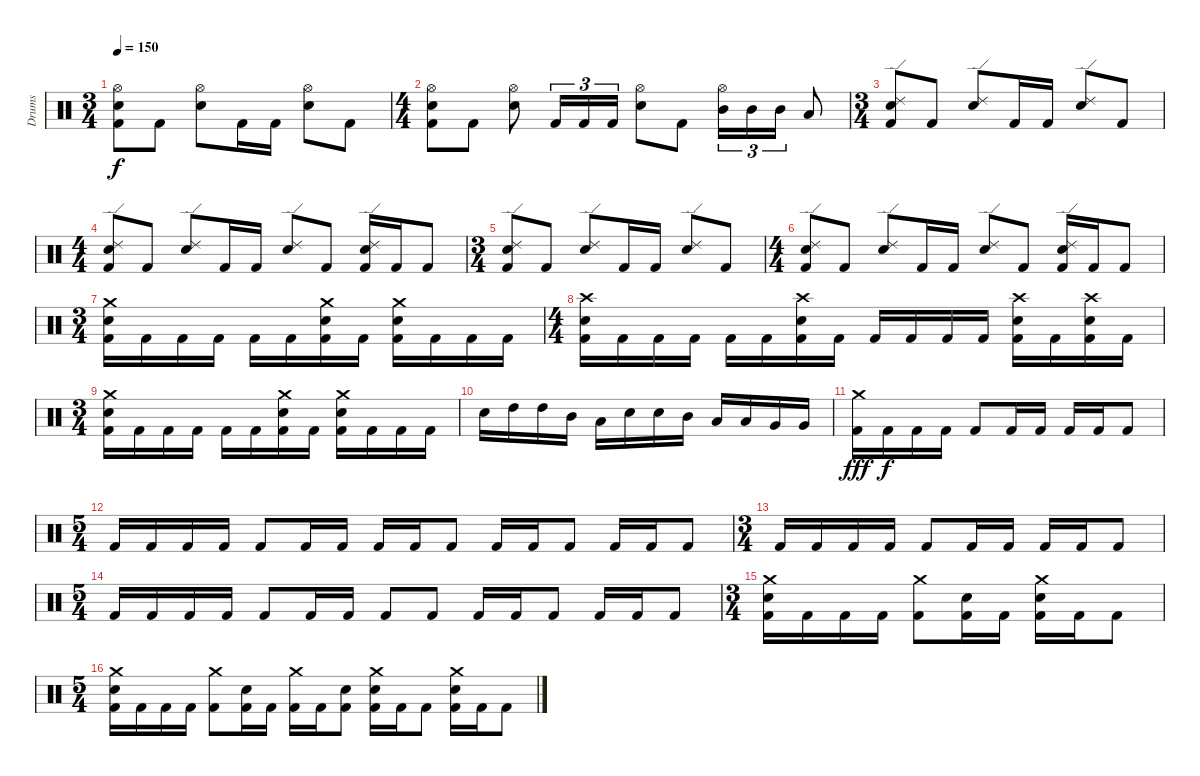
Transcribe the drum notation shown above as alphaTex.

\track ("Drums" "Drums") {instrument percussion}
\staff {score}
\articulation defaults
\ts (3 4)
\tempo 150
\clef neutral
\ks c
("Hi-Hat (open)" "Electric Snare (hit)" "Kick (hit) 2").8{dy f} "Kick (hit) 2".8 ("Hi-Hat (open)" "Electric Snare (hit)").8 "Kick (hit) 2".16 "Kick (hit) 2".16 ("Hi-Hat (open)" "Electric Snare (hit)").8 "Kick (hit) 2".8 |
\ts (4 4)
("Hi-Hat (open)" "Electric Snare (hit)" "Kick (hit) 2").8 "Kick (hit) 2".8 ("Hi-Hat (open)" "Electric Snare (hit)").8 "Kick (hit) 2".16{tu (3 2)} "Kick (hit) 2".16{tu (3 2)} "Kick (hit) 2".16{tu (3 2)} ("Hi-Hat (open)" "Electric Snare (hit)").8 "Kick (hit) 2".8 ("Hi-Hat (open)" "Mid Tom (hit)").16{tu (3 2)} "Mid Tom (hit)".16{tu (3 2)} "Mid Tom (hit)".16{tu (3 2)} "Low Tom (hit)".8 |
\ts (3 4)
("Ride (edge) 2" "Electric Snare (hit)" "Kick (hit) 2").8 "Kick (hit) 2".8 ("Ride (edge) 2" "Electric Snare (hit)").8 "Kick (hit) 2".16 "Kick (hit) 2".16 ("Ride (edge) 2" "Electric Snare (hit)").8 "Kick (hit) 2".8 |
\ts (4 4)
("Ride (edge) 2" "Electric Snare (hit)" "Kick (hit) 2").8 "Kick (hit) 2".8 ("Ride (edge) 2" "Electric Snare (hit)").8 "Kick (hit) 2".16 "Kick (hit) 2".16 ("Ride (edge) 2" "Electric Snare (hit)").8 "Kick (hit) 2".8 ("Ride (edge) 2" "Electric Snare (hit)" "Kick (hit) 2").16 "Kick (hit) 2".16 "Kick (hit) 2".8 |
\ts (3 4)
("Ride (edge) 2" "Electric Snare (hit)" "Kick (hit) 2").8 "Kick (hit) 2".8 ("Ride (edge) 2" "Electric Snare (hit)").8 "Kick (hit) 2".16 "Kick (hit) 2".16 ("Ride (edge) 2" "Electric Snare (hit)").8 "Kick (hit) 2".8 |
\ts (4 4)
("Ride (edge) 2" "Electric Snare (hit)" "Kick (hit) 2").8 "Kick (hit) 2".8 ("Ride (edge) 2" "Electric Snare (hit)").8 "Kick (hit) 2".16 "Kick (hit) 2".16 ("Ride (edge) 2" "Electric Snare (hit)").8 "Kick (hit) 2".8 ("Ride (edge) 2" "Electric Snare (hit)" "Kick (hit) 2").16 "Kick (hit) 2".16 "Kick (hit) 2".8 |
\ts (3 4)
("Crash medium (hit)" "Electric Snare (hit)" "Kick (hit) 2").16 "Kick (hit) 2".16 "Kick (hit) 2".16 "Kick (hit) 2".16 "Kick (hit) 2".16 "Kick (hit) 2".16 ("Crash medium (hit)" "Electric Snare (hit)" "Kick (hit) 2").16 "Kick (hit) 2".16 ("Crash medium (hit)" "Electric Snare (hit)" "Kick (hit) 2").16 "Kick (hit) 2".16 "Kick (hit) 2".16 "Kick (hit) 2".16 |
\ts (4 4)
("Crash high (hit)" "Electric Snare (hit)" "Kick (hit) 2").16 "Kick (hit) 2".16 "Kick (hit) 2".16 "Kick (hit) 2".16 "Kick (hit) 2".16 "Kick (hit) 2".16 ("Crash high (hit)" "Electric Snare (hit)" "Kick (hit) 2").16 "Kick (hit) 2".16 "Kick (hit) 2".16 "Kick (hit) 2".16 "Kick (hit) 2".16 "Kick (hit) 2".16 ("Crash high (hit)" "Electric Snare (hit)" "Kick (hit) 2").16 "Kick (hit) 2".16 ("Crash high (hit)" "Electric Snare (hit)" "Kick (hit) 2").16 "Kick (hit) 2".16 |
\ts (3 4)
("Crash medium (hit)" "Electric Snare (hit)" "Kick (hit) 2").16 "Kick (hit) 2".16 "Kick (hit) 2".16 "Kick (hit) 2".16 "Kick (hit) 2".16 "Kick (hit) 2".16 ("Crash medium (hit)" "Electric Snare (hit)" "Kick (hit) 2").16 "Kick (hit) 2".16 ("Crash medium (hit)" "Electric Snare (hit)" "Kick (hit) 2").16 "Kick (hit) 2".16 "Kick (hit) 2".16 "Kick (hit) 2".16 |
"Electric Snare (hit)".16 "High Tom (hit)".16 "High Tom (hit)".16 "Mid Tom (hit)".16 "Low Tom (hit)".16 "Electric Snare (hit)".16 "Electric Snare (hit)".16 "Mid Tom (hit)".16 "Low Tom (hit)".16 "Low Tom (hit)".16 "Very Low Tom (hit)".16 "Very Low Tom (hit)".16 |
("Crash medium (hit)" "Kick (hit) 2").16{dy fff} "Kick (hit) 2".16{dy f} "Kick (hit) 2".16 "Kick (hit) 2".16 "Kick (hit) 2".8 "Kick (hit) 2".16 "Kick (hit) 2".16 "Kick (hit) 2".16 "Kick (hit) 2".16 "Kick (hit) 2".8 |
\ts (5 4)
"Kick (hit) 2".16 "Kick (hit) 2".16 "Kick (hit) 2".16 "Kick (hit) 2".16 "Kick (hit) 2".8 "Kick (hit) 2".16 "Kick (hit) 2".16 "Kick (hit) 2".16 "Kick (hit) 2".16 "Kick (hit) 2".8 "Kick (hit) 2".16 "Kick (hit) 2".16 "Kick (hit) 2".8 "Kick (hit) 2".16 "Kick (hit) 2".16 "Kick (hit) 2".8 |
\ts (3 4)
"Kick (hit) 2".16 "Kick (hit) 2".16 "Kick (hit) 2".16 "Kick (hit) 2".16 "Kick (hit) 2".8 "Kick (hit) 2".16 "Kick (hit) 2".16 "Kick (hit) 2".16 "Kick (hit) 2".16 "Kick (hit) 2".8 |
\ts (5 4)
"Kick (hit) 2".16 "Kick (hit) 2".16 "Kick (hit) 2".16 "Kick (hit) 2".16 "Kick (hit) 2".8 "Kick (hit) 2".16 "Kick (hit) 2".16 "Kick (hit) 2".8 "Kick (hit) 2".8 "Kick (hit) 2".16 "Kick (hit) 2".16 "Kick (hit) 2".8 "Kick (hit) 2".16 "Kick (hit) 2".16 "Kick (hit) 2".8 |
\ts (3 4)
("Crash medium (hit)" "Electric Snare (hit)" "Kick (hit) 2").16 "Kick (hit) 2".16 "Kick (hit) 2".16 "Kick (hit) 2".16 ("Crash medium (hit)" "Kick (hit) 2").8 ("Electric Snare (hit)" "Kick (hit) 2").16 "Kick (hit) 2".16 ("Crash medium (hit)" "Electric Snare (hit)" "Kick (hit) 2").16 "Kick (hit) 2".16 "Kick (hit) 2".8 |
\ts (5 4)
("Crash medium (hit)" "Electric Snare (hit)" "Kick (hit) 2").16 "Kick (hit) 2".16 "Kick (hit) 2".16 "Kick (hit) 2".16 ("Crash medium (hit)" "Kick (hit) 2").8 ("Electric Snare (hit)" "Kick (hit) 2").16 "Kick (hit) 2".16 ("Crash medium (hit)" "Kick (hit) 2").16 "Kick (hit) 2".16 ("Electric Snare (hit)" "Kick (hit) 2").8 ("Crash medium (hit)" "Electric Snare (hit)" "Kick (hit) 2").16 "Kick (hit) 2".16 "Kick (hit) 2".8 ("Crash medium (hit)" "Electric Snare (hit)" "Kick (hit) 2").16 "Kick (hit) 2".16 "Kick (hit) 2".8
